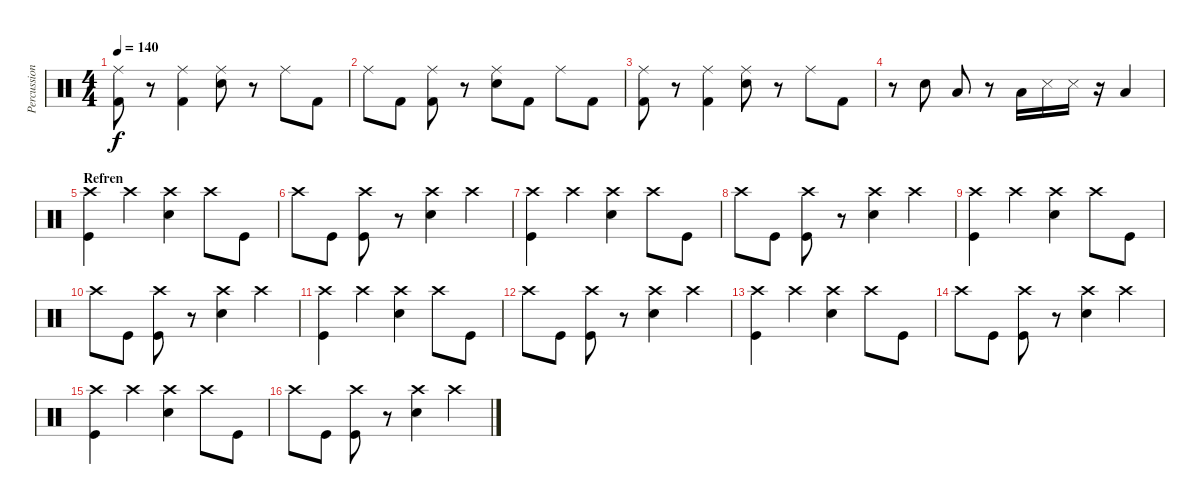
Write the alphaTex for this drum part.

\track ("Percussion" "Percussion") {instrument percussion}
\staff {score}
\articulation defaults
\ts (4 4)
\tempo 140
\clef neutral
\ks c
("Kick (hit) 2" "Ride (middle)").8{dy f} r.8 ("Kick (hit) 2" "Ride (middle)").4 ("Snare (hit) 2" "Ride (middle)").8 r.8 "Ride (middle)".8 "Kick (hit) 2".8 |
"Ride (middle)".8 "Kick (hit) 2".8 ("Kick (hit) 2" "Ride (middle)").8 r.8 ("Snare (hit) 2" "Ride (middle)").8 "Kick (hit) 2".8 "Ride (middle)".8 "Kick (hit) 2".8 |
("Kick (hit) 2" "Ride (middle)").8 r.8 ("Kick (hit) 2" "Ride (middle)").4 ("Snare (hit) 2" "Ride (middle)").8 r.8 "Ride (middle)".8 "Kick (hit) 2".8 |
r.8 "Snare (hit) 2".8 "Low Floor Tom (hit)".8 r.8 "Low Tom (hit)".16 "Snare (side stick) 3".16 "Snare (side stick) 3".16 r.16 "Low Floor Tom (hit)".4 |
\section ("" "Refren")
("Kick (hit)" "Crash high (hit)").4 "Crash high (hit)".4 ("Snare (hit) 2" "Crash high (hit)").4 "Crash high (hit)".8 "Kick (hit)".8 |
"Crash high (hit)".8 "Kick (hit)".8 ("Kick (hit)" "Crash high (hit)").8 r.8 ("Snare (hit) 2" "Crash high (hit)").4 "Crash high (hit)".4 |
("Kick (hit)" "Crash high (hit)").4 "Crash high (hit)".4 ("Snare (hit) 2" "Crash high (hit)").4 "Crash high (hit)".8 "Kick (hit)".8 |
"Crash high (hit)".8 "Kick (hit)".8 ("Kick (hit)" "Crash high (hit)").8 r.8 ("Snare (hit) 2" "Crash high (hit)").4 "Crash high (hit)".4 |
("Kick (hit)" "Crash high (hit)").4 "Crash high (hit)".4 ("Snare (hit) 2" "Crash high (hit)").4 "Crash high (hit)".8 "Kick (hit)".8 |
"Crash high (hit)".8 "Kick (hit)".8 ("Kick (hit)" "Crash high (hit)").8 r.8 ("Snare (hit) 2" "Crash high (hit)").4 "Crash high (hit)".4 |
("Kick (hit)" "Crash high (hit)").4 "Crash high (hit)".4 ("Snare (hit) 2" "Crash high (hit)").4 "Crash high (hit)".8 "Kick (hit)".8 |
"Crash high (hit)".8 "Kick (hit)".8 ("Kick (hit)" "Crash high (hit)").8 r.8 ("Snare (hit) 2" "Crash high (hit)").4 "Crash high (hit)".4 |
("Kick (hit)" "Crash high (hit)").4 "Crash high (hit)".4 ("Snare (hit) 2" "Crash high (hit)").4 "Crash high (hit)".8 "Kick (hit)".8 |
"Crash high (hit)".8 "Kick (hit)".8 ("Kick (hit)" "Crash high (hit)").8 r.8 ("Snare (hit) 2" "Crash high (hit)").4 "Crash high (hit)".4 |
("Kick (hit)" "Crash high (hit)").4 "Crash high (hit)".4 ("Snare (hit) 2" "Crash high (hit)").4 "Crash high (hit)".8 "Kick (hit)".8 |
"Crash high (hit)".8 "Kick (hit)".8 ("Kick (hit)" "Crash high (hit)").8 r.8 ("Snare (hit) 2" "Crash high (hit)").4 "Crash high (hit)".4
